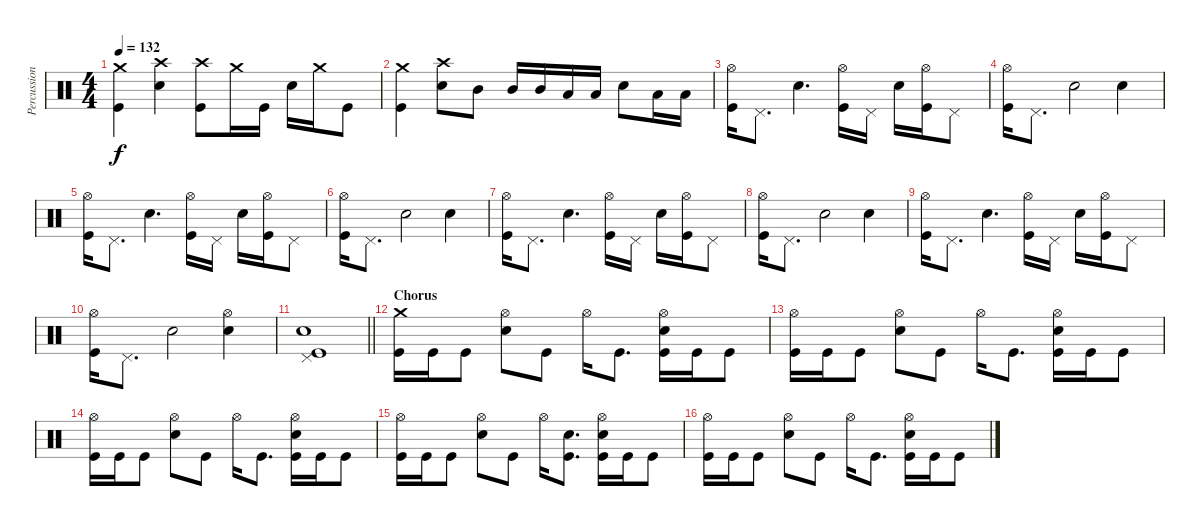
\track ("Percussion" "Percussion") {instrument percussion}
\staff {score}
\articulation defaults
\ts (4 4)
\tempo 132
\clef neutral
\ks c
("Crash medium (hit)" "Kick (hit)").4{dy f} ("Crash high (hit)" "Electric Snare (hit)").4 ("Crash high (hit)" "Kick (hit)").8 "Crash medium (hit)".16 "Kick (hit)".16 "Electric Snare (hit)".16 "Crash medium (hit)".16 "Kick (hit)".8 |
("Crash medium (hit)" "Kick (hit)").4 ("Crash high (hit)" "Electric Snare (hit)").8 "Mid Tom (hit)".8 "Mid Tom (hit)".16 "Mid Tom (hit)".16 "Low Tom (hit)".16 "Low Tom (hit)".16 "Electric Snare (hit)".8 "Low Floor Tom (hit)".16 "Low Floor Tom (hit)".16 |
("Hi-Hat (open)" "Kick (hit)").16 "Pedal Hi-Hat (hit)".8{d} "Electric Snare (hit)".4{d} ("Hi-Hat (open)" "Kick (hit)").16 "Pedal Hi-Hat (hit)".16 "Electric Snare (hit)".16 ("Hi-Hat (open)" "Kick (hit)").16 "Pedal Hi-Hat (hit)".8 |
("Hi-Hat (open)" "Kick (hit)").16 "Pedal Hi-Hat (hit)".8{d} "Electric Snare (hit)".2 "Electric Snare (hit)".4 |
("Hi-Hat (open)" "Kick (hit)").16 "Pedal Hi-Hat (hit)".8{d} "Electric Snare (hit)".4{d} ("Hi-Hat (open)" "Kick (hit)").16 "Pedal Hi-Hat (hit)".16 "Electric Snare (hit)".16 ("Hi-Hat (open)" "Kick (hit)").16 "Pedal Hi-Hat (hit)".8 |
("Hi-Hat (open)" "Kick (hit)").16 "Pedal Hi-Hat (hit)".8{d} "Electric Snare (hit)".2 "Electric Snare (hit)".4 |
("Hi-Hat (open)" "Kick (hit)").16 "Pedal Hi-Hat (hit)".8{d} "Electric Snare (hit)".4{d} ("Hi-Hat (open)" "Kick (hit)").16 "Pedal Hi-Hat (hit)".16 "Electric Snare (hit)".16 ("Hi-Hat (open)" "Kick (hit)").16 "Pedal Hi-Hat (hit)".8 |
("Hi-Hat (open)" "Kick (hit)").16 "Pedal Hi-Hat (hit)".8{d} "Electric Snare (hit)".2 "Electric Snare (hit)".4 |
("Hi-Hat (open)" "Kick (hit)").16 "Pedal Hi-Hat (hit)".8{d} "Electric Snare (hit)".4{d} ("Hi-Hat (open)" "Kick (hit)").16 "Pedal Hi-Hat (hit)".16 "Electric Snare (hit)".16 ("Hi-Hat (open)" "Kick (hit)").16 "Pedal Hi-Hat (hit)".8 |
("Hi-Hat (open)" "Kick (hit)").16 "Pedal Hi-Hat (hit)".8{d} "Electric Snare (hit)".2 ("Hi-Hat (open)" "Electric Snare (hit)").4 |
\barLineRight lightlight
("Pedal Hi-Hat (hit)" "Electric Snare (hit)" "Kick (hit)").1 |
\section ("" "Chorus")
("Crash medium (hit)" "Kick (hit)").16 "Kick (hit)".16 "Kick (hit)".8 ("Hi-Hat (open)" "Electric Snare (hit)").8 "Kick (hit)".8 "Hi-Hat (open)".16 "Kick (hit)".8{d} ("Hi-Hat (open)" "Electric Snare (hit)" "Kick (hit)").16 "Kick (hit)".16 "Kick (hit)".8 |
("Hi-Hat (open)" "Kick (hit)").16 "Kick (hit)".16 "Kick (hit)".8 ("Hi-Hat (open)" "Electric Snare (hit)").8 "Kick (hit)".8 "Hi-Hat (open)".16 "Kick (hit)".8{d} ("Hi-Hat (open)" "Electric Snare (hit)" "Kick (hit)").16 "Kick (hit)".16 "Kick (hit)".8 |
("Hi-Hat (open)" "Kick (hit)").16 "Kick (hit)".16 "Kick (hit)".8 ("Hi-Hat (open)" "Electric Snare (hit)").8 "Kick (hit)".8 "Hi-Hat (open)".16 "Kick (hit)".8{d} ("Hi-Hat (open)" "Electric Snare (hit)" "Kick (hit)").16 "Kick (hit)".16 "Kick (hit)".8 |
("Hi-Hat (open)" "Kick (hit)").16 "Kick (hit)".16 "Kick (hit)".8 ("Hi-Hat (open)" "Electric Snare (hit)").8 "Kick (hit)".8 "Hi-Hat (open)".16 ("Electric Snare (hit)" "Kick (hit)").8{d} ("Hi-Hat (open)" "Electric Snare (hit)" "Kick (hit)").16 "Kick (hit)".16 "Kick (hit)".8 |
("Hi-Hat (open)" "Kick (hit)").16 "Kick (hit)".16 "Kick (hit)".8 ("Hi-Hat (open)" "Electric Snare (hit)").8 "Kick (hit)".8 "Hi-Hat (open)".16 "Kick (hit)".8{d} ("Hi-Hat (open)" "Electric Snare (hit)" "Kick (hit)").16 "Kick (hit)".16 "Kick (hit)".8
